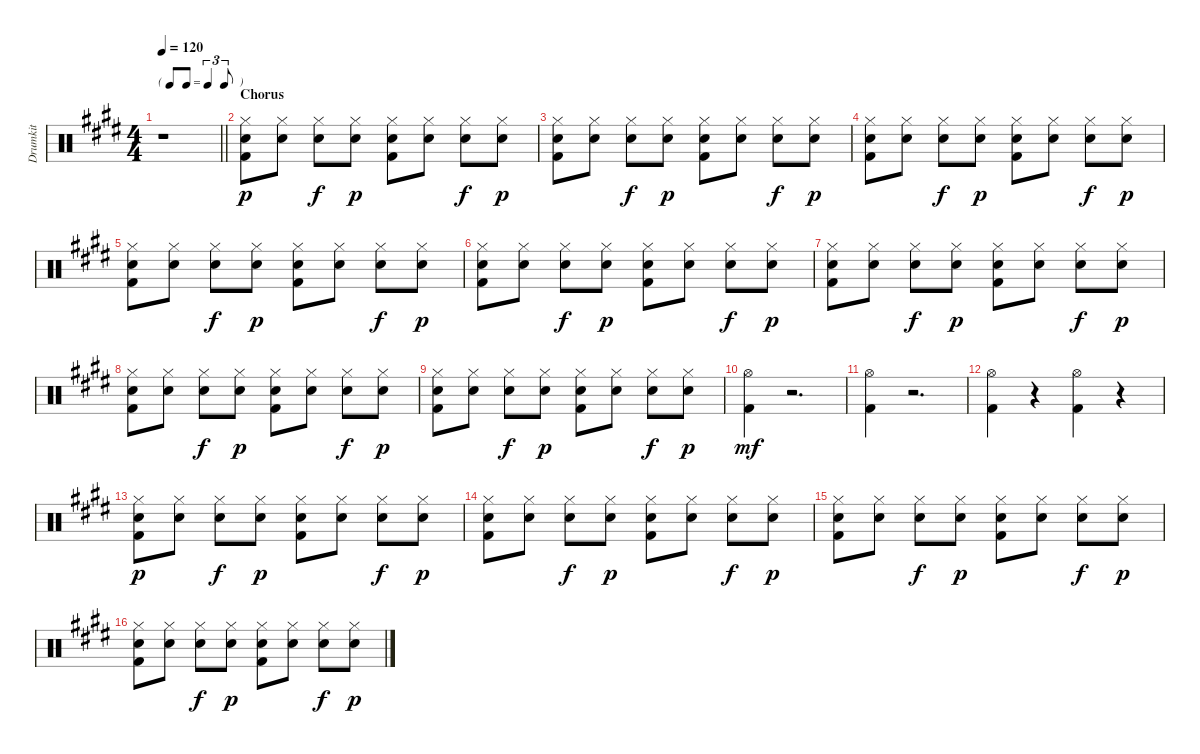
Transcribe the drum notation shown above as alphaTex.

\track ("Drumkit" "Drumkit") {instrument percussion}
\staff {score}
\articulation defaults
\ts (4 4)
\tf triplet8th
\tempo 120
\clef neutral
\barLineRight lightlight
\ks e
r.1{dy p} |
\section ("" "Chorus")
("Hi-Hat (closed)" "Snare (hit) 2" "Kick (hit) 2").8 ("Hi-Hat (closed)" "Snare (hit) 2").8 ("Hi-Hat (closed)" "Snare (hit) 2").8{dy f} ("Hi-Hat (closed)" "Snare (hit) 2").8{dy p} ("Hi-Hat (closed)" "Snare (hit) 2" "Kick (hit) 2").8 ("Hi-Hat (closed)" "Snare (hit) 2").8 ("Hi-Hat (closed)" "Snare (hit) 2").8{dy f} ("Hi-Hat (closed)" "Snare (hit) 2").8{dy p} |
("Hi-Hat (closed)" "Snare (hit) 2" "Kick (hit) 2").8 ("Hi-Hat (closed)" "Snare (hit) 2").8 ("Hi-Hat (closed)" "Snare (hit) 2").8{dy f} ("Hi-Hat (closed)" "Snare (hit) 2").8{dy p} ("Hi-Hat (closed)" "Snare (hit) 2" "Kick (hit) 2").8 ("Hi-Hat (closed)" "Snare (hit) 2").8 ("Hi-Hat (closed)" "Snare (hit) 2").8{dy f} ("Hi-Hat (closed)" "Snare (hit) 2").8{dy p} |
("Hi-Hat (closed)" "Snare (hit) 2" "Kick (hit) 2").8 ("Hi-Hat (closed)" "Snare (hit) 2").8 ("Hi-Hat (closed)" "Snare (hit) 2").8{dy f} ("Hi-Hat (closed)" "Snare (hit) 2").8{dy p} ("Hi-Hat (closed)" "Snare (hit) 2" "Kick (hit) 2").8 ("Hi-Hat (closed)" "Snare (hit) 2").8 ("Hi-Hat (closed)" "Snare (hit) 2").8{dy f} ("Hi-Hat (closed)" "Snare (hit) 2").8{dy p} |
("Hi-Hat (closed)" "Snare (hit) 2" "Kick (hit) 2").8 ("Hi-Hat (closed)" "Snare (hit) 2").8 ("Hi-Hat (closed)" "Snare (hit) 2").8{dy f} ("Hi-Hat (closed)" "Snare (hit) 2").8{dy p} ("Hi-Hat (closed)" "Snare (hit) 2" "Kick (hit) 2").8 ("Hi-Hat (closed)" "Snare (hit) 2").8 ("Hi-Hat (closed)" "Snare (hit) 2").8{dy f} ("Hi-Hat (closed)" "Snare (hit) 2").8{dy p} |
("Hi-Hat (closed)" "Snare (hit) 2" "Kick (hit) 2").8 ("Hi-Hat (closed)" "Snare (hit) 2").8 ("Hi-Hat (closed)" "Snare (hit) 2").8{dy f} ("Hi-Hat (closed)" "Snare (hit) 2").8{dy p} ("Hi-Hat (closed)" "Snare (hit) 2" "Kick (hit) 2").8 ("Hi-Hat (closed)" "Snare (hit) 2").8 ("Hi-Hat (closed)" "Snare (hit) 2").8{dy f} ("Hi-Hat (closed)" "Snare (hit) 2").8{dy p} |
("Hi-Hat (closed)" "Snare (hit) 2" "Kick (hit) 2").8 ("Hi-Hat (closed)" "Snare (hit) 2").8 ("Hi-Hat (closed)" "Snare (hit) 2").8{dy f} ("Hi-Hat (closed)" "Snare (hit) 2").8{dy p} ("Hi-Hat (closed)" "Snare (hit) 2" "Kick (hit) 2").8 ("Hi-Hat (closed)" "Snare (hit) 2").8 ("Hi-Hat (closed)" "Snare (hit) 2").8{dy f} ("Hi-Hat (closed)" "Snare (hit) 2").8{dy p} |
("Hi-Hat (closed)" "Snare (hit) 2" "Kick (hit) 2").8 ("Hi-Hat (closed)" "Snare (hit) 2").8 ("Hi-Hat (closed)" "Snare (hit) 2").8{dy f} ("Hi-Hat (closed)" "Snare (hit) 2").8{dy p} ("Hi-Hat (closed)" "Snare (hit) 2" "Kick (hit) 2").8 ("Hi-Hat (closed)" "Snare (hit) 2").8 ("Hi-Hat (closed)" "Snare (hit) 2").8{dy f} ("Hi-Hat (closed)" "Snare (hit) 2").8{dy p} |
("Hi-Hat (closed)" "Snare (hit) 2" "Kick (hit) 2").8 ("Hi-Hat (closed)" "Snare (hit) 2").8 ("Hi-Hat (closed)" "Snare (hit) 2").8{dy f} ("Hi-Hat (closed)" "Snare (hit) 2").8{dy p} ("Hi-Hat (closed)" "Snare (hit) 2" "Kick (hit) 2").8 ("Hi-Hat (closed)" "Snare (hit) 2").8 ("Hi-Hat (closed)" "Snare (hit) 2").8{dy f} ("Hi-Hat (closed)" "Snare (hit) 2").8{dy p} |
("Kick (hit) 2" "Hi-Hat (open)").4{dy mf} r.2{d} |
("Kick (hit) 2" "Hi-Hat (open)").4 r.2{d} |
("Kick (hit) 2" "Hi-Hat (open)").4 r.4 ("Kick (hit) 2" "Hi-Hat (open)").4 r.4 |
("Hi-Hat (closed)" "Snare (hit) 2" "Kick (hit) 2").8{dy p} ("Hi-Hat (closed)" "Snare (hit) 2").8 ("Hi-Hat (closed)" "Snare (hit) 2").8{dy f} ("Hi-Hat (closed)" "Snare (hit) 2").8{dy p} ("Hi-Hat (closed)" "Snare (hit) 2" "Kick (hit) 2").8 ("Hi-Hat (closed)" "Snare (hit) 2").8 ("Hi-Hat (closed)" "Snare (hit) 2").8{dy f} ("Hi-Hat (closed)" "Snare (hit) 2").8{dy p} |
("Hi-Hat (closed)" "Snare (hit) 2" "Kick (hit) 2").8 ("Hi-Hat (closed)" "Snare (hit) 2").8 ("Hi-Hat (closed)" "Snare (hit) 2").8{dy f} ("Hi-Hat (closed)" "Snare (hit) 2").8{dy p} ("Hi-Hat (closed)" "Snare (hit) 2" "Kick (hit) 2").8 ("Hi-Hat (closed)" "Snare (hit) 2").8 ("Hi-Hat (closed)" "Snare (hit) 2").8{dy f} ("Hi-Hat (closed)" "Snare (hit) 2").8{dy p} |
("Hi-Hat (closed)" "Snare (hit) 2" "Kick (hit) 2").8 ("Hi-Hat (closed)" "Snare (hit) 2").8 ("Hi-Hat (closed)" "Snare (hit) 2").8{dy f} ("Hi-Hat (closed)" "Snare (hit) 2").8{dy p} ("Hi-Hat (closed)" "Snare (hit) 2" "Kick (hit) 2").8 ("Hi-Hat (closed)" "Snare (hit) 2").8 ("Hi-Hat (closed)" "Snare (hit) 2").8{dy f} ("Hi-Hat (closed)" "Snare (hit) 2").8{dy p} |
("Hi-Hat (closed)" "Snare (hit) 2" "Kick (hit) 2").8 ("Hi-Hat (closed)" "Snare (hit) 2").8 ("Hi-Hat (closed)" "Snare (hit) 2").8{dy f} ("Hi-Hat (closed)" "Snare (hit) 2").8{dy p} ("Hi-Hat (closed)" "Snare (hit) 2" "Kick (hit) 2").8 ("Hi-Hat (closed)" "Snare (hit) 2").8 ("Hi-Hat (closed)" "Snare (hit) 2").8{dy f} ("Hi-Hat (closed)" "Snare (hit) 2").8{dy p}
